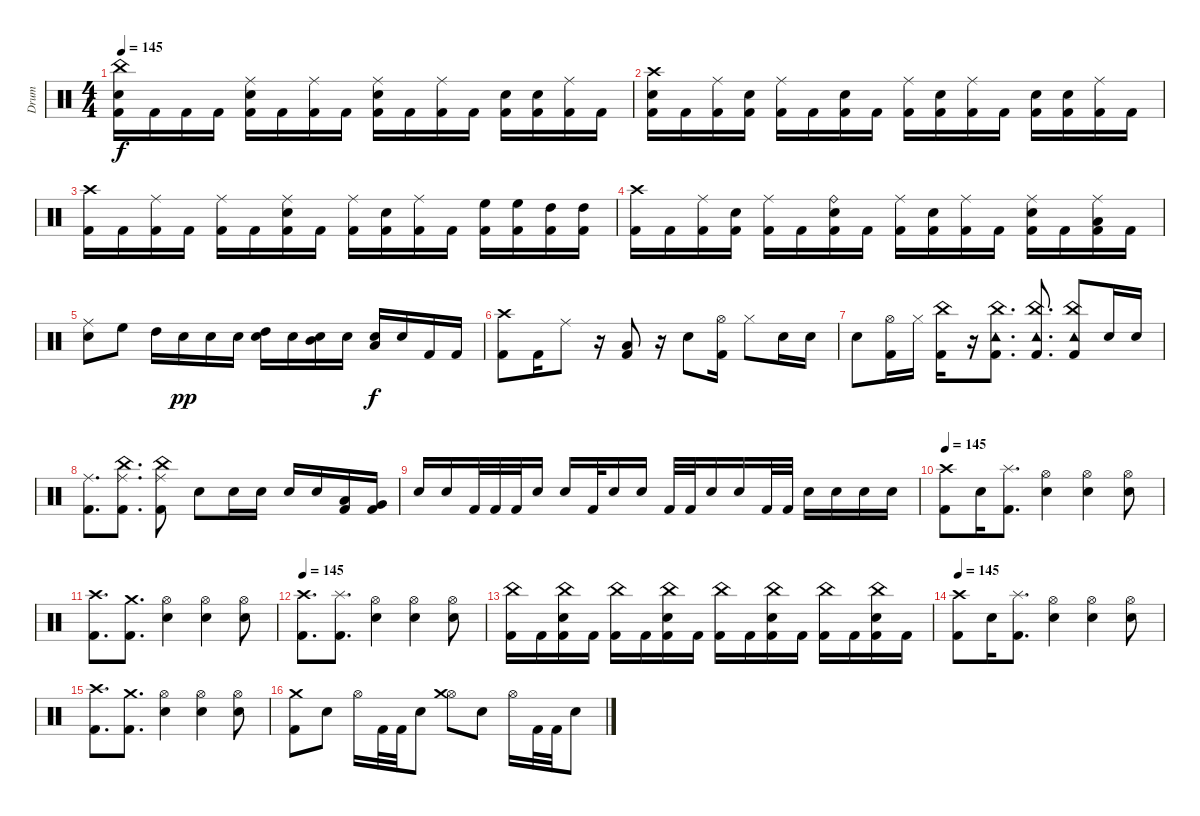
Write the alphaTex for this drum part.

\track ("Drum" "Drum") {instrument percussion}
\staff {score}
\articulation defaults
\ts (4 4)
\tempo 145
\clef neutral
\ks c
("Electric Snare (hit)" "Kick (hit) 2" "China (hit)").16{dy f} "Kick (hit) 2".16 "Kick (hit) 2".16 "Kick (hit) 2".16 ("Electric Snare (hit)" "Kick (hit) 2" "Ride (middle)").16 "Kick (hit) 2".16 ("Kick (hit) 2" "Ride (middle)").16 "Kick (hit) 2".16 ("Electric Snare (hit)" "Kick (hit) 2" "Ride (middle)").16 "Kick (hit) 2".16 ("Kick (hit) 2" "Ride (middle)").16 "Kick (hit) 2".16 ("Kick (hit) 2" "Electric Snare (hit)").16 ("Kick (hit) 2" "Electric Snare (hit)").16 ("Kick (hit) 2" "Ride (middle)").16 "Kick (hit) 2".16 |
("Kick (hit) 2" "Electric Snare (hit)" "Crash high (hit)").16 "Kick (hit) 2".16 ("Kick (hit) 2" "Ride (middle)").16 ("Kick (hit) 2" "Electric Snare (hit)").16 ("Kick (hit) 2" "Ride (middle)").16 "Kick (hit) 2".16 ("Kick (hit) 2" "Electric Snare (hit)").16 "Kick (hit) 2".16 ("Kick (hit) 2" "Ride (middle)").16 ("Kick (hit) 2" "Electric Snare (hit)").16 ("Kick (hit) 2" "Ride (middle)").16 "Kick (hit) 2".16 ("Kick (hit) 2" "Electric Snare (hit)").16 ("Kick (hit) 2" "Electric Snare (hit)").16 ("Kick (hit) 2" "Ride (middle)").16 "Kick (hit) 2".16 |
("Crash high (hit)" "Kick (hit) 2").16 "Kick (hit) 2".16 ("Kick (hit) 2" "Ride (middle)").16 "Kick (hit) 2".16 ("Kick (hit) 2" "Ride (middle)").16 "Kick (hit) 2".16 ("Kick (hit) 2" "Electric Snare (hit)" "Ride (middle)").16 "Kick (hit) 2".16 ("Kick (hit) 2" "Ride (middle)").16 ("Kick (hit) 2" "Electric Snare (hit)").16 ("Kick (hit) 2" "Ride (middle)").16 "Kick (hit) 2".16 ("Kick (hit) 2" "High Floor Tom (hit)").16 ("Kick (hit) 2" "High Floor Tom (hit)").16 ("Kick (hit) 2" "High Tom (hit)").16 ("Kick (hit) 2" "High Tom (hit)").16 |
("Kick (hit) 2" "Crash high (hit)").16 "Kick (hit) 2".16 ("Kick (hit) 2" "Ride (middle)").16 ("Kick (hit) 2" "Electric Snare (hit)").16 ("Kick (hit) 2" "Ride (middle)").16 "Kick (hit) 2".16 ("Kick (hit) 2" "Ride (bell)" "Electric Snare (hit)").16 "Kick (hit) 2".16 ("Kick (hit) 2" "Ride (middle)").16 ("Kick (hit) 2" "Electric Snare (hit)").16 ("Kick (hit) 2" "Ride (middle)").16 "Kick (hit) 2".16 ("Kick (hit) 2" "Electric Snare (hit)" "Ride (middle)").16 "Kick (hit) 2".16 ("Kick (hit) 2" "Low Floor Tom (hit)" "Ride (middle)").16 "Kick (hit) 2".16 |
("Electric Snare (hit)" "Ride (middle)").8 "High Floor Tom (hit)".8 "High Tom (hit)".16 "Electric Snare (hit)".16{dy pp} "Electric Snare (hit)".16 "Electric Snare (hit)".16 ("High Tom (hit)" "Electric Snare (hit)").16 "Electric Snare (hit)".16 ("Mid Tom (hit)" "Electric Snare (hit)").16 "Electric Snare (hit)".16 ("Electric Snare (hit)" "Low Tom (hit)").16{dy f} "Electric Snare (hit)".16 "Kick (hit) 2".16 "Kick (hit) 2".16 |
("Crash high (hit)" "Kick (hit) 2").8 "Kick (hit) 2".16 "Ride (middle)".8 r.16 ("Low Tom (hit)" "Kick (hit) 2").8 r.16 "Electric Snare (hit)".8 ("Hi-Hat (open)" "Kick (hit) 2").16 "Hi-Hat (closed)".8 "Electric Snare (hit)".16 "Electric Snare (hit)".16 |
"Electric Snare (hit)".8 ("Kick (hit) 2" "Hi-Hat (open)").16 "Hi-Hat (closed)".16 ("Kick (hit) 2" "China (hit)").16 r.16 ("Tambourine (hit)" "Kick (hit) 2" "China (hit)").8{d} ("Tambourine (hit)" "China (hit)" "Kick (hit) 2").8{d} ("Tambourine (hit)" "China (hit)" "Kick (hit) 2").8 "Electric Snare (hit)".16 "Electric Snare (hit)".16 |
("Kick (hit) 2" "Ride (middle)").8{d} ("Ride (middle)" "Kick (hit) 2" "China (hit)").8{d} ("China (hit)" "Ride (middle)" "Kick (hit) 2").8 "Electric Snare (hit)".8 "Electric Snare (hit)".16 "Electric Snare (hit)".16 "Electric Snare (hit)".16 "Electric Snare (hit)".16 ("Kick (hit) 2" "Low Tom (hit)").16 ("Kick (hit) 2" "Very Low Tom (hit)").16 |
"Electric Snare (hit)".16 "Electric Snare (hit)".16 "Kick (hit) 2".32 "Kick (hit) 2".32 "Kick (hit) 2".32 "Electric Snare (hit)".16 "Electric Snare (hit)".16 "Kick (hit) 2".32 "Electric Snare (hit)".16 "Electric Snare (hit)".16 "Kick (hit) 2".32 "Kick (hit) 2".32 "Electric Snare (hit)".16 "Electric Snare (hit)".16 "Kick (hit) 2".32 "Kick (hit) 2".32 "Electric Snare (hit)".16 "Electric Snare (hit)".16 "Electric Snare (hit)".16 "Electric Snare (hit)".16 |
\tempo 145
("Crash high (hit)" "Kick (hit) 2").8 "Electric Snare (hit)".16 ("Splash (hit)" "Kick (hit) 2").8{d} ("Hi-Hat (open)" "Electric Snare (hit)").4 ("Hi-Hat (open)" "Electric Snare (hit)").4 ("Hi-Hat (open)" "Electric Snare (hit)").8 |
("Kick (hit) 2" "Crash high (hit)").8{d} ("Kick (hit) 2" "Crash medium (hit)").8{d} ("Hi-Hat (open)" "Electric Snare (hit)").4 ("Hi-Hat (open)" "Electric Snare (hit)").4 ("Hi-Hat (open)" "Electric Snare (hit)").8 |
\tempo 145
("Crash high (hit)" "Kick (hit) 2").8{d} ("Splash (hit)" "Kick (hit) 2").8{d} ("Hi-Hat (open)" "Electric Snare (hit)").4 ("Hi-Hat (open)" "Electric Snare (hit)").4 ("Hi-Hat (open)" "Electric Snare (hit)").8 |
("Kick (hit) 2" "China (hit)").16 "Kick (hit) 2".16 ("Electric Snare (hit)" "Kick (hit) 2" "China (hit)").16 "Kick (hit) 2".16 ("Kick (hit) 2" "China (hit)").16 "Kick (hit) 2".16 ("Electric Snare (hit)" "Kick (hit) 2" "China (hit)").16 "Kick (hit) 2".16 ("Kick (hit) 2" "China (hit)").16 "Kick (hit) 2".16 ("Electric Snare (hit)" "Kick (hit) 2" "China (hit)").16 "Kick (hit) 2".16 ("Kick (hit) 2" "China (hit)").16 "Kick (hit) 2".16 ("Electric Snare (hit)" "Kick (hit) 2" "China (hit)").16 "Kick (hit) 2".16 |
\tempo 145
("Kick (hit) 2" "Crash high (hit)").8 "Electric Snare (hit)".16 ("Splash (hit)" "Kick (hit) 2").8{d} ("Hi-Hat (open)" "Electric Snare (hit)").4 ("Hi-Hat (open)" "Electric Snare (hit)").4 ("Hi-Hat (open)" "Electric Snare (hit)").8 |
("Kick (hit) 2" "Crash high (hit)").8{d} ("Kick (hit) 2" "Crash medium (hit)").8{d} ("Hi-Hat (open)" "Electric Snare (hit)").4 ("Hi-Hat (open)" "Electric Snare (hit)").4 ("Hi-Hat (open)" "Electric Snare (hit)").8 |
("Kick (hit) 2" "Crash medium (hit)").8 "Electric Snare (hit)".8 "Hi-Hat (open)".16 "Kick (hit) 2".32 "Kick (hit) 2".32 "Electric Snare (hit)".8 ("Hi-Hat (open)" "Crash medium (hit)").8 "Electric Snare (hit)".8 "Hi-Hat (open)".16 "Kick (hit) 2".32 "Kick (hit) 2".32 "Electric Snare (hit)".8
